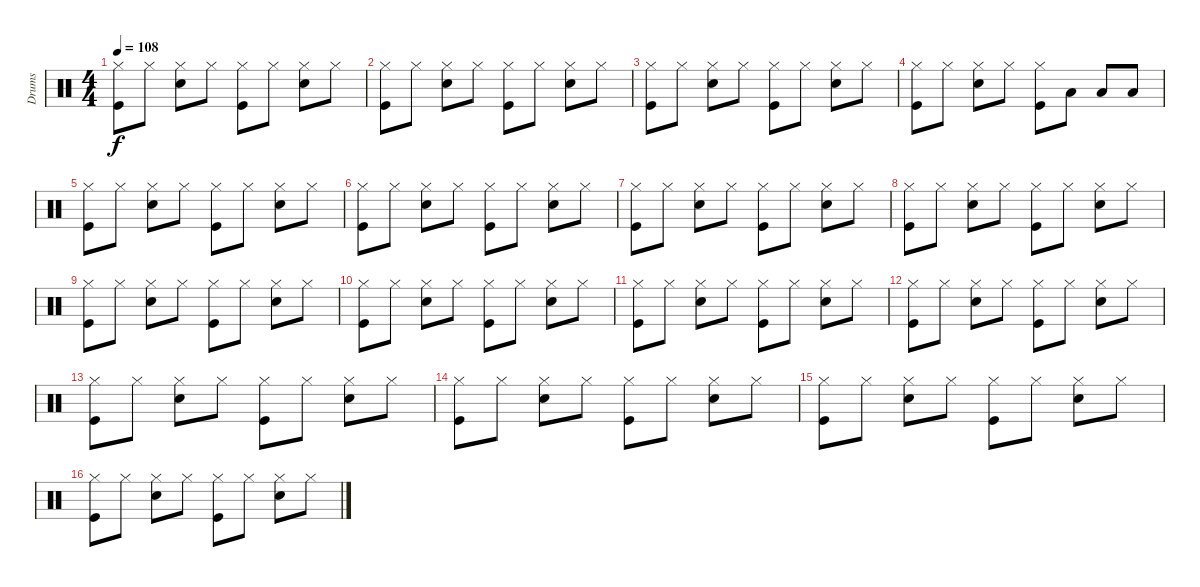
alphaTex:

\track ("Drums" "Drums") {instrument percussion}
\staff {score}
\articulation defaults
\ts (4 4)
\tempo 108
\clef neutral
\ks c
("Kick (hit)" "Hi-Hat (closed)").8{dy f} "Hi-Hat (closed)".8 ("Snare (hit) 2" "Hi-Hat (closed)").8 "Hi-Hat (closed)".8 ("Kick (hit)" "Hi-Hat (closed)").8 "Hi-Hat (closed)".8 ("Hi-Hat (closed)" "Snare (hit) 2").8 "Hi-Hat (closed)".8 |
("Kick (hit)" "Hi-Hat (closed)").8 "Hi-Hat (closed)".8 ("Snare (hit) 2" "Hi-Hat (closed)").8 "Hi-Hat (closed)".8 ("Kick (hit)" "Hi-Hat (closed)").8 "Hi-Hat (closed)".8 ("Hi-Hat (closed)" "Snare (hit) 2").8 "Hi-Hat (closed)".8 |
("Kick (hit)" "Hi-Hat (closed)").8 "Hi-Hat (closed)".8 ("Snare (hit) 2" "Hi-Hat (closed)").8 "Hi-Hat (closed)".8 ("Kick (hit)" "Hi-Hat (closed)").8 "Hi-Hat (closed)".8 ("Hi-Hat (closed)" "Snare (hit) 2").8 "Hi-Hat (closed)".8 |
("Kick (hit)" "Hi-Hat (closed)").8 "Hi-Hat (closed)".8 ("Snare (hit) 2" "Hi-Hat (closed)").8 "Hi-Hat (closed)".8 ("Kick (hit)" "Hi-Hat (closed)").8 "Low Floor Tom (hit)".8 "Low Floor Tom (hit)".8 "Low Floor Tom (hit)".8 |
("Kick (hit)" "Hi-Hat (closed)").8 "Hi-Hat (closed)".8 ("Snare (hit) 2" "Hi-Hat (closed)").8 "Hi-Hat (closed)".8 ("Kick (hit)" "Hi-Hat (closed)").8 "Hi-Hat (closed)".8 ("Hi-Hat (closed)" "Snare (hit) 2").8 "Hi-Hat (closed)".8 |
("Kick (hit)" "Hi-Hat (closed)").8 "Hi-Hat (closed)".8 ("Snare (hit) 2" "Hi-Hat (closed)").8 "Hi-Hat (closed)".8 ("Kick (hit)" "Hi-Hat (closed)").8 "Hi-Hat (closed)".8 ("Hi-Hat (closed)" "Snare (hit) 2").8 "Hi-Hat (closed)".8 |
("Kick (hit)" "Hi-Hat (closed)").8 "Hi-Hat (closed)".8 ("Snare (hit) 2" "Hi-Hat (closed)").8 "Hi-Hat (closed)".8 ("Kick (hit)" "Hi-Hat (closed)").8 "Hi-Hat (closed)".8 ("Hi-Hat (closed)" "Snare (hit) 2").8 "Hi-Hat (closed)".8 |
("Kick (hit)" "Hi-Hat (closed)").8 "Hi-Hat (closed)".8 ("Snare (hit) 2" "Hi-Hat (closed)").8 "Hi-Hat (closed)".8 ("Kick (hit)" "Hi-Hat (closed)").8 "Hi-Hat (closed)".8 ("Hi-Hat (closed)" "Snare (hit) 2").8 "Hi-Hat (closed)".8 |
("Kick (hit)" "Hi-Hat (closed)").8 "Hi-Hat (closed)".8 ("Snare (hit) 2" "Hi-Hat (closed)").8 "Hi-Hat (closed)".8 ("Kick (hit)" "Hi-Hat (closed)").8 "Hi-Hat (closed)".8 ("Hi-Hat (closed)" "Snare (hit) 2").8 "Hi-Hat (closed)".8 |
("Kick (hit)" "Hi-Hat (closed)").8 "Hi-Hat (closed)".8 ("Snare (hit) 2" "Hi-Hat (closed)").8 "Hi-Hat (closed)".8 ("Kick (hit)" "Hi-Hat (closed)").8 "Hi-Hat (closed)".8 ("Hi-Hat (closed)" "Snare (hit) 2").8 "Hi-Hat (closed)".8 |
("Kick (hit)" "Hi-Hat (closed)").8 "Hi-Hat (closed)".8 ("Snare (hit) 2" "Hi-Hat (closed)").8 "Hi-Hat (closed)".8 ("Kick (hit)" "Hi-Hat (closed)").8 "Hi-Hat (closed)".8 ("Hi-Hat (closed)" "Snare (hit) 2").8 "Hi-Hat (closed)".8 |
("Kick (hit)" "Hi-Hat (closed)").8 "Hi-Hat (closed)".8 ("Snare (hit) 2" "Hi-Hat (closed)").8 "Hi-Hat (closed)".8 ("Kick (hit)" "Hi-Hat (closed)").8 "Hi-Hat (closed)".8 ("Hi-Hat (closed)" "Snare (hit) 2").8 "Hi-Hat (closed)".8 |
("Kick (hit)" "Hi-Hat (closed)").8 "Hi-Hat (closed)".8 ("Snare (hit) 2" "Hi-Hat (closed)").8 "Hi-Hat (closed)".8 ("Kick (hit)" "Hi-Hat (closed)").8 "Hi-Hat (closed)".8 ("Hi-Hat (closed)" "Snare (hit) 2").8 "Hi-Hat (closed)".8 |
("Kick (hit)" "Hi-Hat (closed)").8 "Hi-Hat (closed)".8 ("Snare (hit) 2" "Hi-Hat (closed)").8 "Hi-Hat (closed)".8 ("Kick (hit)" "Hi-Hat (closed)").8 "Hi-Hat (closed)".8 ("Hi-Hat (closed)" "Snare (hit) 2").8 "Hi-Hat (closed)".8 |
("Kick (hit)" "Hi-Hat (closed)").8 "Hi-Hat (closed)".8 ("Snare (hit) 2" "Hi-Hat (closed)").8 "Hi-Hat (closed)".8 ("Kick (hit)" "Hi-Hat (closed)").8 "Hi-Hat (closed)".8 ("Hi-Hat (closed)" "Snare (hit) 2").8 "Hi-Hat (closed)".8 |
("Kick (hit)" "Hi-Hat (closed)").8 "Hi-Hat (closed)".8 ("Snare (hit) 2" "Hi-Hat (closed)").8 "Hi-Hat (closed)".8 ("Kick (hit)" "Hi-Hat (closed)").8 "Hi-Hat (closed)".8 ("Hi-Hat (closed)" "Snare (hit) 2").8 "Hi-Hat (closed)".8
